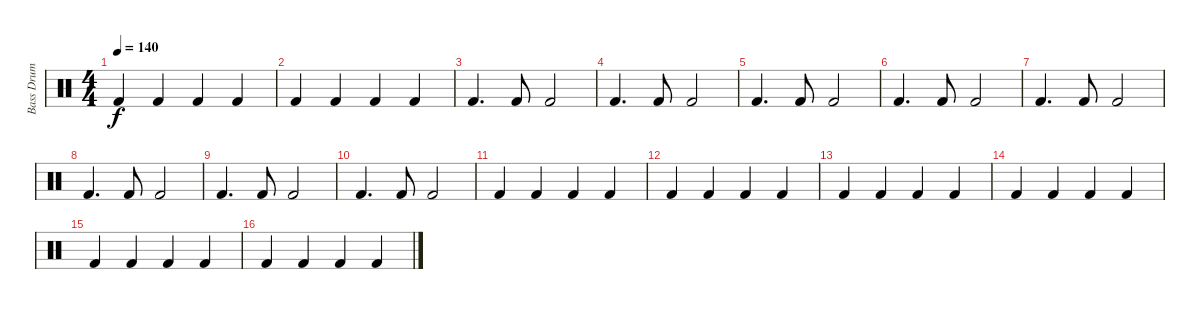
\track ("Bass Drum" "Bass Drum") {instrument percussion}
\staff {score}
\articulation defaults
\ts (4 4)
\tempo 140
\clef neutral
\ks c "Kick (hit) 2".4{dy f} "Kick (hit) 2".4 "Kick (hit) 2".4 "Kick (hit) 2".4
|
"Kick (hit) 2".4 "Kick (hit) 2".4 "Kick (hit) 2".4 "Kick (hit) 2".4 |
"Kick (hit) 2".4{d} "Kick (hit) 2".8 "Kick (hit) 2".2 |
"Kick (hit) 2".4{d} "Kick (hit) 2".8 "Kick (hit) 2".2 |
"Kick (hit) 2".4{d} "Kick (hit) 2".8 "Kick (hit) 2".2 |
"Kick (hit) 2".4{d} "Kick (hit) 2".8 "Kick (hit) 2".2 |
"Kick (hit) 2".4{d} "Kick (hit) 2".8 "Kick (hit) 2".2 |
"Kick (hit) 2".4{d} "Kick (hit) 2".8 "Kick (hit) 2".2 |
"Kick (hit) 2".4{d} "Kick (hit) 2".8 "Kick (hit) 2".2 |
"Kick (hit) 2".4{d} "Kick (hit) 2".8 "Kick (hit) 2".2 |
"Kick (hit) 2".4 "Kick (hit) 2".4 "Kick (hit) 2".4 "Kick (hit) 2".4 |
"Kick (hit) 2".4 "Kick (hit) 2".4 "Kick (hit) 2".4 "Kick (hit) 2".4 |
"Kick (hit) 2".4 "Kick (hit) 2".4 "Kick (hit) 2".4 "Kick (hit) 2".4 |
"Kick (hit) 2".4 "Kick (hit) 2".4 "Kick (hit) 2".4 "Kick (hit) 2".4 |
"Kick (hit) 2".4 "Kick (hit) 2".4 "Kick (hit) 2".4 "Kick (hit) 2".4 |
"Kick (hit) 2".4 "Kick (hit) 2".4 "Kick (hit) 2".4 "Kick (hit) 2".4
